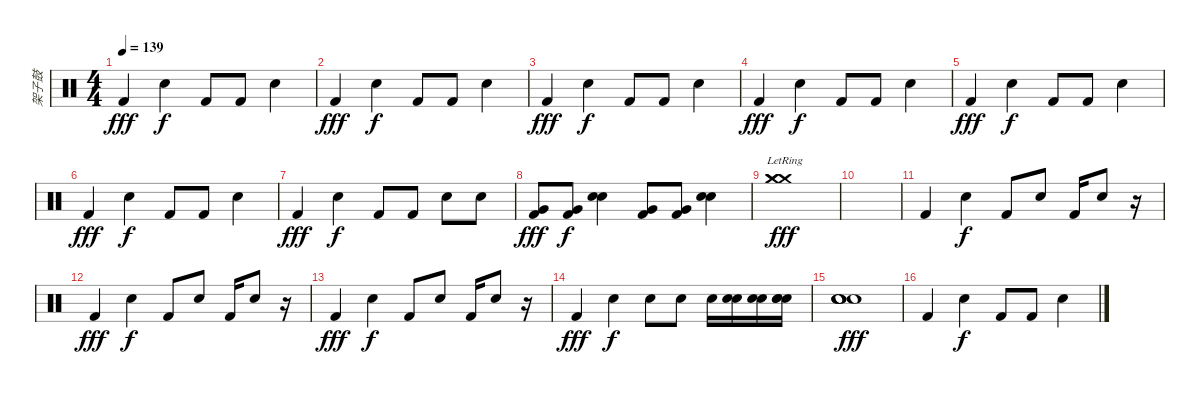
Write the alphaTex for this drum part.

\track ("架子鼓" "架子鼓") {instrument percussion}
\staff {score}
\articulation defaults
\ts (4 4)
\tempo 139
\clef neutral
\ks c "Kick (hit) 2".4{dy fff} "Electric Snare (hit)".4{dy f} "Kick (hit) 2".8 "Kick (hit) 2".8 "Electric Snare (hit)".4
|
"Kick (hit) 2".4{dy fff} "Electric Snare (hit)".4{dy f} "Kick (hit) 2".8 "Kick (hit) 2".8 "Electric Snare (hit)".4 |
"Kick (hit) 2".4{dy fff} "Electric Snare (hit)".4{dy f} "Kick (hit) 2".8 "Kick (hit) 2".8 "Electric Snare (hit)".4 |
"Kick (hit) 2".4{dy fff} "Electric Snare (hit)".4{dy f} "Kick (hit) 2".8 "Kick (hit) 2".8 "Electric Snare (hit)".4 |
"Kick (hit) 2".4{dy fff} "Electric Snare (hit)".4{dy f} "Kick (hit) 2".8 "Kick (hit) 2".8 "Electric Snare (hit)".4 |
"Kick (hit) 2".4{dy fff} "Electric Snare (hit)".4{dy f} "Kick (hit) 2".8 "Kick (hit) 2".8 "Electric Snare (hit)".4 |
"Kick (hit) 2".4{dy fff} "Electric Snare (hit)".4{dy f} "Kick (hit) 2".8 "Kick (hit) 2".8 "Electric Snare (hit)".8 "Electric Snare (hit)".8 |
("Very Low Tom (hit)" "Kick (hit) 2").8{dy fff} ("Kick (hit) 2" "Very Low Tom (hit)").8{dy f} ("Electric Snare (hit)" "Electric Snare (hit)").4 ("Very Low Tom (hit)" "Kick (hit) 2").8 ("Very Low Tom (hit)" "Kick (hit) 2").8 ("Electric Snare (hit)" "Electric Snare (hit)").4 |
("Crash medium (hit)"{lr} "Crash medium (hit)"{lr} "Crash medium (hit)"{lr}).1{dy fff} |
|
"Kick (hit) 2".4 "Electric Snare (hit)".4{dy f} "Kick (hit) 2".8 "Electric Snare (hit)".8 "Kick (hit) 2".16 "Electric Snare (hit)".8 r.16 |
"Kick (hit) 2".4{dy fff} "Electric Snare (hit)".4{dy f} "Kick (hit) 2".8 "Electric Snare (hit)".8 "Kick (hit) 2".16 "Electric Snare (hit)".8 r.16 |
"Kick (hit) 2".4{dy fff} "Electric Snare (hit)".4{dy f} "Kick (hit) 2".8 "Electric Snare (hit)".8 "Kick (hit) 2".16 "Electric Snare (hit)".8 r.16 |
"Kick (hit) 2".4{dy fff} "Electric Snare (hit)".4{dy f} "Electric Snare (hit)".8 "Electric Snare (hit)".8 "Electric Snare (hit)".16 ("Electric Snare (hit)" "Electric Snare (hit)").16 ("Electric Snare (hit)" "Electric Snare (hit)").16 ("Electric Snare (hit)" "Electric Snare (hit)" "Electric Snare (hit)").16 |
("Electric Snare (hit)" "Electric Snare (hit)" "Electric Snare (hit)" "Electric Snare (hit)").1{dy fff} |
"Kick (hit) 2".4 "Electric Snare (hit)".4{dy f} "Kick (hit) 2".8 "Kick (hit) 2".8 "Electric Snare (hit)".4
